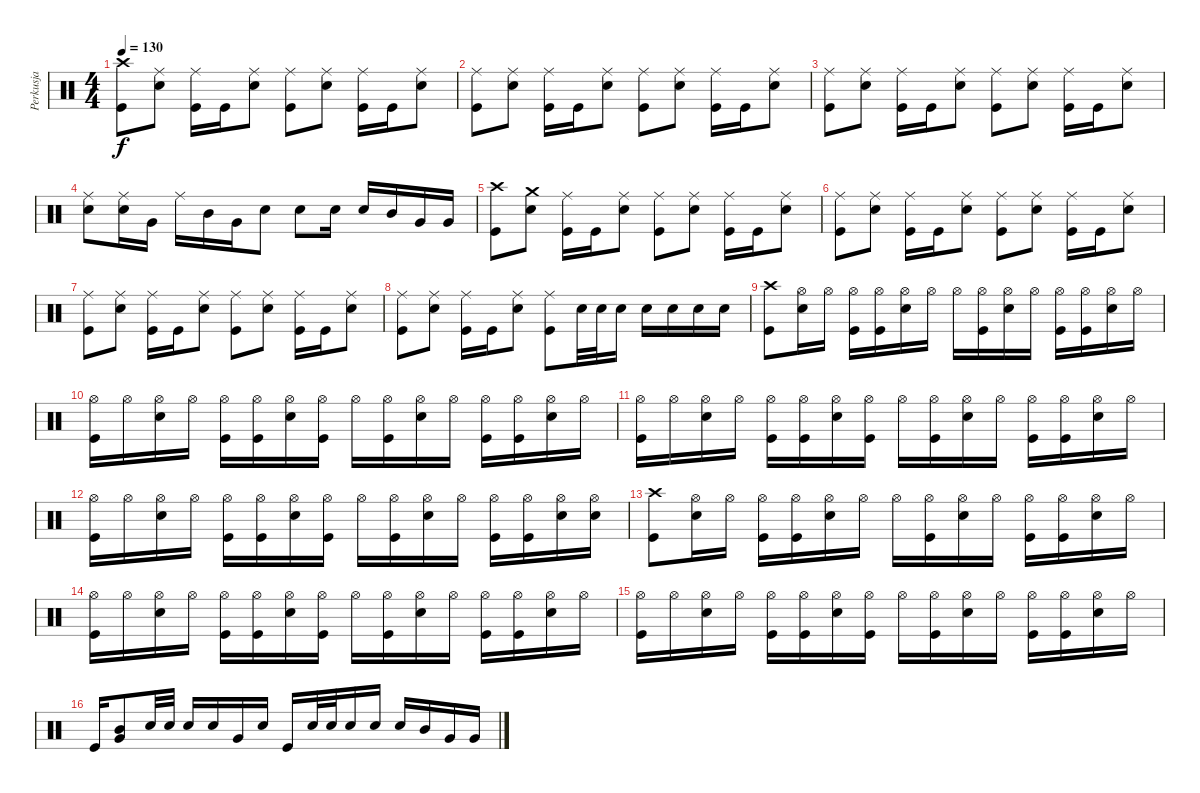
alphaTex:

\track ("Perkusja" "Perkusja") {instrument percussion}
\staff {score}
\articulation defaults
\ts (4 4)
\tempo 130
\clef neutral
\ks c
("Crash high (hit)" "Kick (hit)").8{dy f} ("Ride (middle)" "Snare (hit) 2").8 ("Ride (middle)" "Kick (hit)").16 "Kick (hit)".16 ("Ride (middle)" "Snare (hit) 2").8 ("Ride (middle)" "Kick (hit)").8 ("Ride (middle)" "Snare (hit) 2").8 ("Ride (middle)" "Kick (hit)").16 "Kick (hit)".16 ("Ride (middle)" "Snare (hit) 2").8 |
("Ride (middle)" "Kick (hit)").8 ("Ride (middle)" "Snare (hit) 2").8 ("Ride (middle)" "Kick (hit)").16 "Kick (hit)".16 ("Ride (middle)" "Snare (hit) 2").8 ("Ride (middle)" "Kick (hit)").8 ("Ride (middle)" "Snare (hit) 2").8 ("Ride (middle)" "Kick (hit)").16 "Kick (hit)".16 ("Ride (middle)" "Snare (hit) 2").8 |
("Ride (middle)" "Kick (hit)").8 ("Ride (middle)" "Snare (hit) 2").8 ("Ride (middle)" "Kick (hit)").16 "Kick (hit)".16 ("Ride (middle)" "Snare (hit) 2").8 ("Ride (middle)" "Kick (hit)").8 ("Ride (middle)" "Snare (hit) 2").8 ("Ride (middle)" "Kick (hit)").16 "Kick (hit)".16 ("Ride (middle)" "Snare (hit) 2").8 |
("Ride (middle)" "Snare (hit) 2").8 ("Ride (middle)" "Snare (hit) 2").16 "Very Low Tom (hit)".16 "Ride (middle)".16 "Mid Tom (hit)".16 "Very Low Tom (hit)".16 "Snare (hit) 2".8 "Snare (hit) 2".8 "Snare (hit) 2".16 "Snare (hit) 2".16 "Mid Tom (hit)".16 "Very Low Tom (hit)".16 "Very Low Tom (hit)".16 |
("Crash high (hit)" "Kick (hit)").8 ("Crash medium (hit)" "Snare (hit) 2").8 ("Ride (middle)" "Kick (hit)").16 "Kick (hit)".16 ("Ride (middle)" "Snare (hit) 2").8 ("Ride (middle)" "Kick (hit)").8 ("Ride (middle)" "Snare (hit) 2").8 ("Ride (middle)" "Kick (hit)").16 "Kick (hit)".16 ("Ride (middle)" "Snare (hit) 2").8 |
("Ride (middle)" "Kick (hit)").8 ("Ride (middle)" "Snare (hit) 2").8 ("Ride (middle)" "Kick (hit)").16 "Kick (hit)".16 ("Ride (middle)" "Snare (hit) 2").8 ("Ride (middle)" "Kick (hit)").8 ("Ride (middle)" "Snare (hit) 2").8 ("Ride (middle)" "Kick (hit)").16 "Kick (hit)".16 ("Ride (middle)" "Snare (hit) 2").8 |
("Ride (middle)" "Kick (hit)").8 ("Ride (middle)" "Snare (hit) 2").8 ("Ride (middle)" "Kick (hit)").16 "Kick (hit)".16 ("Ride (middle)" "Snare (hit) 2").8 ("Ride (middle)" "Kick (hit)").8 ("Ride (middle)" "Snare (hit) 2").8 ("Ride (middle)" "Kick (hit)").16 "Kick (hit)".16 ("Ride (middle)" "Snare (hit) 2").8 |
("Ride (middle)" "Kick (hit)").8 ("Ride (middle)" "Snare (hit) 2").8 ("Ride (middle)" "Kick (hit)").16 "Kick (hit)".16 ("Ride (middle)" "Snare (hit) 2").8 ("Ride (middle)" "Kick (hit)").8 "Snare (hit) 2".32 "Snare (hit) 2".32 "Snare (hit) 2".16 "Snare (hit) 2".16 "Snare (hit) 2".16 "Snare (hit) 2".16 "Snare (hit) 2".16 |
("Crash high (hit)" "Kick (hit)").8 ("Hi-Hat (open)" "Snare (hit) 2").16 "Hi-Hat (open)".16 ("Hi-Hat (open)" "Kick (hit)").16 ("Hi-Hat (open)" "Kick (hit)").16 ("Hi-Hat (open)" "Snare (hit) 2").16 "Hi-Hat (open)".16 "Hi-Hat (open)".16 ("Hi-Hat (open)" "Kick (hit)").16 ("Hi-Hat (open)" "Snare (hit) 2").16 "Hi-Hat (open)".16 ("Hi-Hat (open)" "Kick (hit)").16 ("Hi-Hat (open)" "Kick (hit)").16 ("Hi-Hat (open)" "Snare (hit) 2").16 "Hi-Hat (open)".16 |
("Hi-Hat (open)" "Kick (hit)").16 "Hi-Hat (open)".16 ("Hi-Hat (open)" "Snare (hit) 2").16 "Hi-Hat (open)".16 ("Hi-Hat (open)" "Kick (hit)").16 ("Hi-Hat (open)" "Kick (hit)").16 ("Hi-Hat (open)" "Snare (hit) 2").16 ("Hi-Hat (open)" "Kick (hit)").16 "Hi-Hat (open)".16 ("Hi-Hat (open)" "Kick (hit)").16 ("Hi-Hat (open)" "Snare (hit) 2").16 "Hi-Hat (open)".16 ("Hi-Hat (open)" "Kick (hit)").16 ("Hi-Hat (open)" "Kick (hit)").16 ("Hi-Hat (open)" "Snare (hit) 2").16 "Hi-Hat (open)".16 |
("Hi-Hat (open)" "Kick (hit)").16 "Hi-Hat (open)".16 ("Hi-Hat (open)" "Snare (hit) 2").16 "Hi-Hat (open)".16 ("Hi-Hat (open)" "Kick (hit)").16 ("Hi-Hat (open)" "Kick (hit)").16 ("Hi-Hat (open)" "Snare (hit) 2").16 ("Hi-Hat (open)" "Kick (hit)").16 "Hi-Hat (open)".16 ("Hi-Hat (open)" "Kick (hit)").16 ("Hi-Hat (open)" "Snare (hit) 2").16 "Hi-Hat (open)".16 ("Hi-Hat (open)" "Kick (hit)").16 ("Hi-Hat (open)" "Kick (hit)").16 ("Hi-Hat (open)" "Snare (hit) 2").16 "Hi-Hat (open)".16 |
("Hi-Hat (open)" "Kick (hit)").16 "Hi-Hat (open)".16 ("Hi-Hat (open)" "Snare (hit) 2").16 "Hi-Hat (open)".16 ("Hi-Hat (open)" "Kick (hit)").16 ("Hi-Hat (open)" "Kick (hit)").16 ("Hi-Hat (open)" "Snare (hit) 2").16 ("Hi-Hat (open)" "Kick (hit)").16 "Hi-Hat (open)".16 ("Hi-Hat (open)" "Kick (hit)").16 ("Hi-Hat (open)" "Snare (hit) 2").16 "Hi-Hat (open)".16 ("Hi-Hat (open)" "Kick (hit)").16 ("Hi-Hat (open)" "Kick (hit)").16 ("Hi-Hat (open)" "Snare (hit) 2").16 ("Hi-Hat (open)" "Snare (hit) 2").16 |
("Crash high (hit)" "Kick (hit)").8 ("Hi-Hat (open)" "Snare (hit) 2").16 "Hi-Hat (open)".16 ("Hi-Hat (open)" "Kick (hit)").16 ("Hi-Hat (open)" "Kick (hit)").16 ("Hi-Hat (open)" "Snare (hit) 2").16 "Hi-Hat (open)".16 "Hi-Hat (open)".16 ("Hi-Hat (open)" "Kick (hit)").16 ("Hi-Hat (open)" "Snare (hit) 2").16 "Hi-Hat (open)".16 ("Hi-Hat (open)" "Kick (hit)").16 ("Hi-Hat (open)" "Kick (hit)").16 ("Hi-Hat (open)" "Snare (hit) 2").16 "Hi-Hat (open)".16 |
("Hi-Hat (open)" "Kick (hit)").16 "Hi-Hat (open)".16 ("Hi-Hat (open)" "Snare (hit) 2").16 "Hi-Hat (open)".16 ("Hi-Hat (open)" "Kick (hit)").16 ("Hi-Hat (open)" "Kick (hit)").16 ("Hi-Hat (open)" "Snare (hit) 2").16 ("Hi-Hat (open)" "Kick (hit)").16 "Hi-Hat (open)".16 ("Hi-Hat (open)" "Kick (hit)").16 ("Hi-Hat (open)" "Snare (hit) 2").16 "Hi-Hat (open)".16 ("Hi-Hat (open)" "Kick (hit)").16 ("Hi-Hat (open)" "Kick (hit)").16 ("Hi-Hat (open)" "Snare (hit) 2").16 "Hi-Hat (open)".16 |
("Hi-Hat (open)" "Kick (hit)").16 "Hi-Hat (open)".16 ("Hi-Hat (open)" "Snare (hit) 2").16 "Hi-Hat (open)".16 ("Hi-Hat (open)" "Kick (hit)").16 ("Hi-Hat (open)" "Kick (hit)").16 ("Hi-Hat (open)" "Snare (hit) 2").16 ("Hi-Hat (open)" "Kick (hit)").16 "Hi-Hat (open)".16 ("Hi-Hat (open)" "Kick (hit)").16 ("Hi-Hat (open)" "Snare (hit) 2").16 "Hi-Hat (open)".16 ("Hi-Hat (open)" "Kick (hit)").16 ("Hi-Hat (open)" "Kick (hit)").16 ("Hi-Hat (open)" "Snare (hit) 2").16 "Hi-Hat (open)".16 |
"Kick (hit)".16 ("Mid Tom (hit)" "Very Low Tom (hit)").8 "Snare (hit) 2".32 "Snare (hit) 2".32 "Snare (hit) 2".16 "Snare (hit) 2".16 "Very Low Tom (hit)".16 "Snare (hit) 2".16 "Kick (hit)".16 "Snare (hit) 2".32 "Snare (hit) 2".32 "Snare (hit) 2".16 "Snare (hit) 2".16 "Snare (hit) 2".16 "Mid Tom (hit)".16 "Very Low Tom (hit)".16 "Very Low Tom (hit)".16
